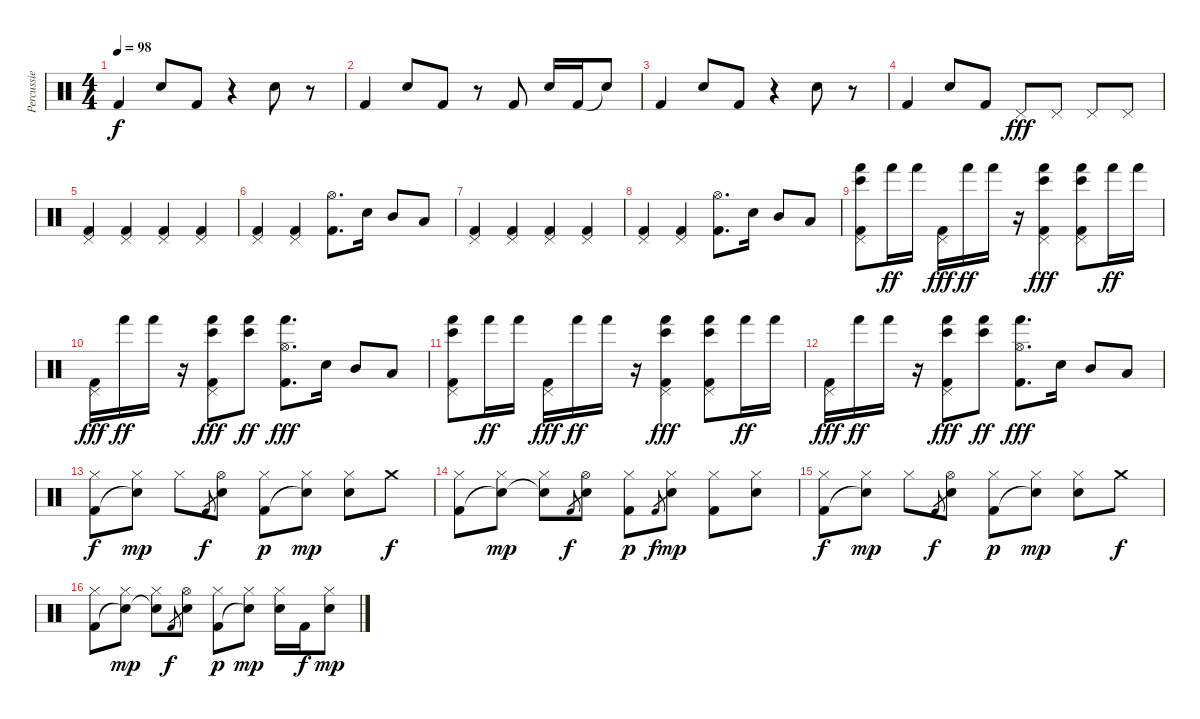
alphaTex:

\track ("Percussie" "Percussie") {instrument percussion}
\staff {score}
\articulation defaults
\ts (4 4)
\tempo 98
\clef neutral
\ks c "Kick (hit) 2".4{dy f} "Electric Snare (hit)".8 "Kick (hit) 2".8
r.4 "Electric Snare (hit)".8 r.8 |
"Kick (hit) 2".4 "Electric Snare (hit)".8 "Kick (hit) 2".8 r.8 "Kick (hit) 2".8 "Electric Snare (hit)".16 "Kick (hit) 2".16 "Snare (hit)"{t}.8 |
"Kick (hit) 2".4 "Electric Snare (hit)".8 "Kick (hit) 2".8 r.4 "Electric Snare (hit)".8 r.8 |
"Kick (hit) 2".4 "Electric Snare (hit)".8 "Kick (hit) 2".8 "Pedal Hi-Hat (hit)".8{dy fff} "Pedal Hi-Hat (hit)".8 "Pedal Hi-Hat (hit)".8 "Pedal Hi-Hat (hit)".8 |
("Pedal Hi-Hat (hit)" "Kick (hit) 2").4 ("Pedal Hi-Hat (hit)" "Kick (hit) 2").4 ("Pedal Hi-Hat (hit)" "Kick (hit) 2").4 ("Pedal Hi-Hat (hit)" "Kick (hit) 2").4 |
("Pedal Hi-Hat (hit)" "Kick (hit) 2").4 ("Pedal Hi-Hat (hit)" "Kick (hit) 2").4 ("Hi-Hat (open)" "Kick (hit) 2").8{d} "Electric Snare (hit)".16 "Mid Tom (hit)".8 "Low Tom (hit)".8 |
("Pedal Hi-Hat (hit)" "Kick (hit) 2").4 ("Pedal Hi-Hat (hit)" "Kick (hit) 2").4 ("Pedal Hi-Hat (hit)" "Kick (hit) 2").4 ("Pedal Hi-Hat (hit)" "Kick (hit) 2").4 |
("Pedal Hi-Hat (hit)" "Kick (hit) 2").4 ("Pedal Hi-Hat (hit)" "Kick (hit) 2").4 ("Hi-Hat (open)" "Kick (hit) 2").8{d} "Electric Snare (hit)".16 "Mid Tom (hit)".8 "Low Tom (hit)".8 |
("Pedal Hi-Hat (hit)" "Bongo High (hit)" "Hand (hit)" "Kick (hit) 2").8 "Hand (hit)".16{dy ff} "Hand (hit)".16 ("Pedal Hi-Hat (hit)" "Kick (hit) 2").16{dy fff} "Hand (hit)".16{dy ff} "Hand (hit)".16 r.16 ("Pedal Hi-Hat (hit)" "Bongo High (hit)" "Hand (hit)" "Kick (hit) 2").4{dy fff} ("Pedal Hi-Hat (hit)" "Bongo High (hit)" "Hand (hit)" "Kick (hit) 2").8 "Hand (hit)".16{dy ff} "Hand (hit)".16 |
("Pedal Hi-Hat (hit)" "Kick (hit) 2").16{dy fff} "Hand (hit)".16{dy ff} "Hand (hit)".16 r.16 ("Pedal Hi-Hat (hit)" "Bongo High (hit)" "Hand (hit)" "Kick (hit) 2").8{dy fff} ("Bongo High (hit)" "Hand (hit)").8{dy ff} ("Hi-Hat (open)" "Hand (hit)" "Kick (hit) 2").8{d dy fff} "Electric Snare (hit)".16 "Mid Tom (hit)".8 "Low Tom (hit)".8 |
("Pedal Hi-Hat (hit)" "Bongo High (hit)" "Hand (hit)" "Kick (hit) 2").8 "Hand (hit)".16{dy ff} "Hand (hit)".16 ("Pedal Hi-Hat (hit)" "Kick (hit) 2").16{dy fff} "Hand (hit)".16{dy ff} "Hand (hit)".16 r.16 ("Pedal Hi-Hat (hit)" "Bongo High (hit)" "Hand (hit)" "Kick (hit) 2").4{dy fff} ("Pedal Hi-Hat (hit)" "Bongo High (hit)" "Hand (hit)" "Kick (hit) 2").8 "Hand (hit)".16{dy ff} "Hand (hit)".16 |
("Pedal Hi-Hat (hit)" "Kick (hit) 2").16{dy fff} "Hand (hit)".16{dy ff} "Hand (hit)".16 r.16 ("Pedal Hi-Hat (hit)" "Bongo High (hit)" "Hand (hit)" "Kick (hit) 2").8{dy fff} ("Bongo High (hit)" "Hand (hit)").8{dy ff} ("Hi-Hat (open)" "Hand (hit)" "Kick (hit) 2").8{d dy fff} "Electric Snare (hit)".16 "Mid Tom (hit)".8 "Low Tom (hit)".8 |
("Hi-Hat (closed)" "Kick (hit) 2").8{dy f} ("Hi-Hat (closed)" "Snare (hit)"{t}).8{dy mp} "Hi-Hat (closed)".8 "Kick (hit) 2".8{gr dy f} ("Hi-Hat (open)" "Electric Snare (hit)").8 ("Hi-Hat (closed)" "Kick (hit) 2").8{dy p} ("Hi-Hat (closed)" "Snare (hit)"{t}).8{dy mp} ("Hi-Hat (closed)" "Electric Snare (hit)").8 "Crash medium (hit)".8{dy f} |
("Hi-Hat (closed)" "Kick (hit) 2").8 ("Hi-Hat (closed)" "Snare (hit)"{t}).8{dy mp} ("Hi-Hat (closed)" "Snare (hit)"{t}).8 "Kick (hit) 2".8{gr dy f} ("Hi-Hat (open)" "Electric Snare (hit)").8 ("Hi-Hat (closed)" "Kick (hit) 2").8{dy p} "Kick (hit) 2".8{gr dy f} ("Hi-Hat (closed)" "Electric Snare (hit)").8{dy mp} ("Hi-Hat (closed)" "Kick (hit) 2").8 ("Hi-Hat (closed)" "Electric Snare (hit)").8 |
("Hi-Hat (closed)" "Kick (hit) 2").8{dy f} ("Hi-Hat (closed)" "Snare (hit)"{t}).8{dy mp} "Hi-Hat (closed)".8 "Kick (hit) 2".8{gr dy f} ("Hi-Hat (open)" "Electric Snare (hit)").8 ("Hi-Hat (closed)" "Kick (hit) 2").8{dy p} ("Hi-Hat (closed)" "Snare (hit)"{t}).8{dy mp} ("Hi-Hat (closed)" "Electric Snare (hit)").8 "Crash medium (hit)".8{dy f} |
("Hi-Hat (closed)" "Kick (hit) 2").8 ("Hi-Hat (closed)" "Snare (hit)"{t}).8{dy mp} ("Hi-Hat (closed)" "Snare (hit)"{t}).8 "Kick (hit) 2".8{gr dy f} ("Hi-Hat (open)" "Electric Snare (hit)").8 ("Hi-Hat (closed)" "Kick (hit) 2").8{dy p} ("Hi-Hat (closed)" "Snare (hit)"{t}).8{dy mp} ("Hi-Hat (closed)" "Electric Snare (hit)").16 "Kick (hit) 2".16{dy f} ("Hi-Hat (closed)" "Electric Snare (hit)").8{dy mp}
